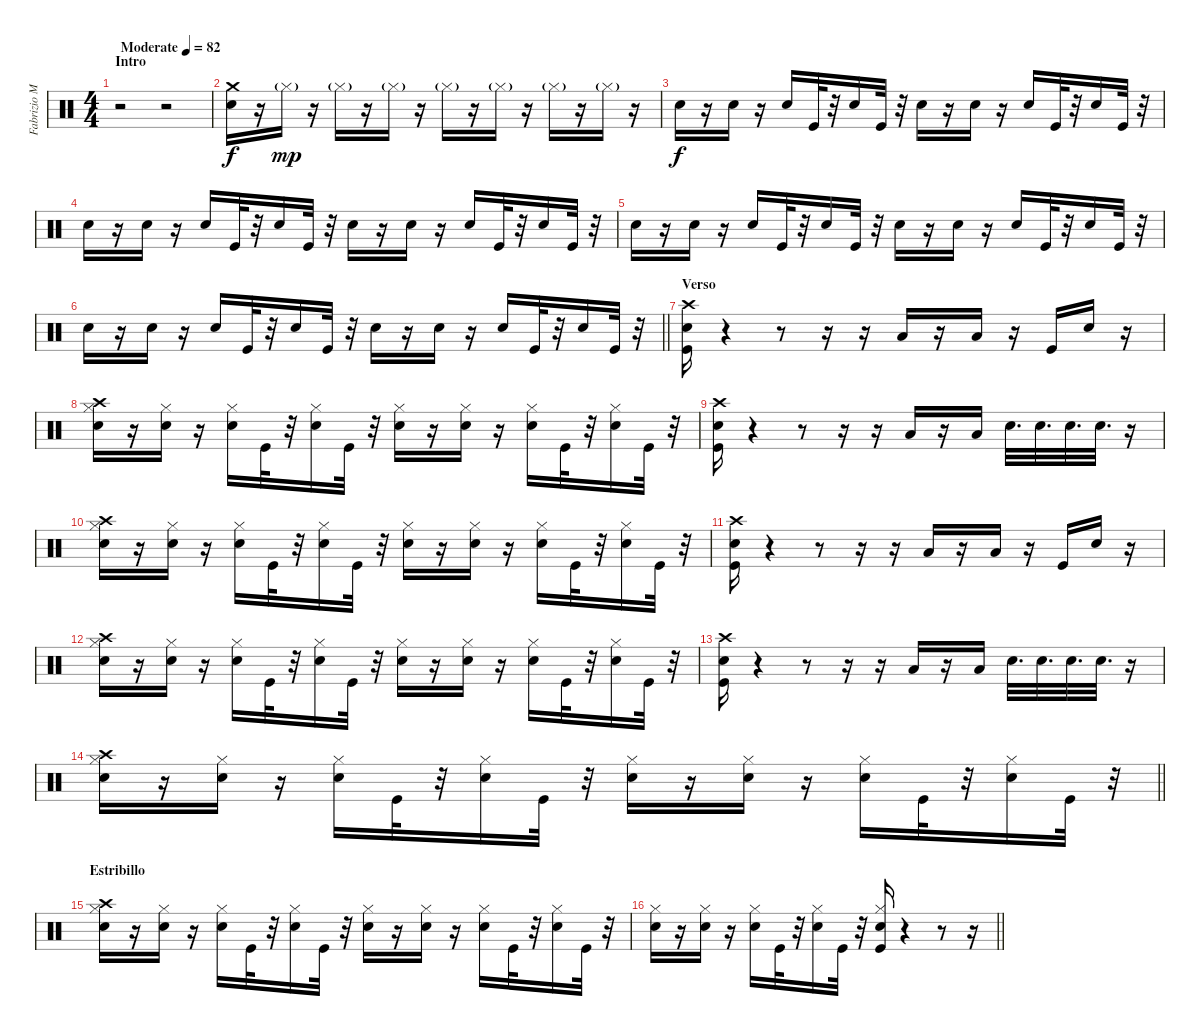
\track ("Fabrizio Moretti" "Fabrizio M") {instrument percussion}
\staff {score}
\articulation defaults
\ts (4 4)
\section ("" "Intro")
\tempo (82 "Moderate")
\clef neutral
\ks c
r.2{dy f} r.2 |
("Snare (hit) 2" "Crash medium (hit)").16 r.16 "Hi-Hat (closed)"{g}.16{dy mp} r.16 "Hi-Hat (closed)"{g}.16 r.16 "Hi-Hat (closed)"{g}.16 r.16 "Hi-Hat (closed)"{g}.16 r.16 "Hi-Hat (closed)"{g}.16 r.16 "Hi-Hat (closed)"{g}.16 r.16 "Hi-Hat (closed)"{g}.16 r.16 |
"Snare (hit) 2".16{dy f} r.16 "Snare (hit) 2".16 r.16 "Snare (hit) 2".16 "Kick (hit)".32 r.32 "Snare (hit) 2".16 "Kick (hit)".32 r.32 "Snare (hit) 2".16 r.16 "Snare (hit) 2".16 r.16 "Snare (hit) 2".16 "Kick (hit)".32 r.32 "Snare (hit) 2".16 "Kick (hit)".32 r.32 |
"Snare (hit) 2".16 r.16 "Snare (hit) 2".16 r.16 "Snare (hit) 2".16 "Kick (hit)".32 r.32 "Snare (hit) 2".16 "Kick (hit)".32 r.32 "Snare (hit) 2".16 r.16 "Snare (hit) 2".16 r.16 "Snare (hit) 2".16 "Kick (hit)".32 r.32 "Snare (hit) 2".16 "Kick (hit)".32 r.32 |
"Snare (hit) 2".16 r.16 "Snare (hit) 2".16 r.16 "Snare (hit) 2".16 "Kick (hit)".32 r.32 "Snare (hit) 2".16 "Kick (hit)".32 r.32 "Snare (hit) 2".16 r.16 "Snare (hit) 2".16 r.16 "Snare (hit) 2".16 "Kick (hit)".32 r.32 "Snare (hit) 2".16 "Kick (hit)".32 r.32 |
\barLineRight lightlight "Snare (hit) 2".16
r.16 "Snare (hit) 2".16 r.16 "Snare (hit) 2".16 "Kick (hit)".32 r.32 "Snare (hit) 2".16 "Kick (hit)".32 r.32 "Snare (hit) 2".16 r.16 "Snare (hit) 2".16 r.16 "Snare (hit) 2".16 "Kick (hit)".32 r.32 "Snare (hit) 2".16 "Kick (hit)".32 r.32 |
\section ("" "Verso")
("Snare (hit) 2" "Kick (hit)" "Crash high (hit)").16 r.4 r.8 r.16 r.16 "Low Tom (hit)".16 r.16 "Low Floor Tom (hit)".16 r.16 "Kick (hit)".16 "Snare (hit) 2".16 r.16 |
("Snare (hit) 2" "Crash high (hit)" "Hi-Hat (closed)").16 r.16 ("Snare (hit) 2" "Hi-Hat (closed)").16 r.16 ("Snare (hit) 2" "Hi-Hat (closed)").16 "Kick (hit)".32 r.32 ("Snare (hit) 2" "Hi-Hat (closed)").16 "Kick (hit)".32 r.32 ("Snare (hit) 2" "Hi-Hat (closed)").16 r.16 ("Snare (hit) 2" "Hi-Hat (closed)").16 r.16 ("Snare (hit) 2" "Hi-Hat (closed)").16 "Kick (hit)".32 r.32 ("Snare (hit) 2" "Hi-Hat (closed)").16 "Kick (hit)".32 r.32 |
("Snare (hit) 2" "Kick (hit)" "Crash high (hit)").16 r.4 r.8 r.16 r.16 "Low Tom (hit)".16 r.16 "Low Floor Tom (hit)".16 "Snare (hit) 2".32{d} "Snare (hit) 2".32{d} "Snare (hit) 2".32{d} "Snare (hit) 2".32{d} r.16 |
("Snare (hit) 2" "Crash high (hit)" "Hi-Hat (closed)").16 r.16 ("Snare (hit) 2" "Hi-Hat (closed)").16 r.16 ("Snare (hit) 2" "Hi-Hat (closed)").16 "Kick (hit)".32 r.32 ("Snare (hit) 2" "Hi-Hat (closed)").16 "Kick (hit)".32 r.32 ("Snare (hit) 2" "Hi-Hat (closed)").16 r.16 ("Snare (hit) 2" "Hi-Hat (closed)").16 r.16 ("Snare (hit) 2" "Hi-Hat (closed)").16 "Kick (hit)".32 r.32 ("Snare (hit) 2" "Hi-Hat (closed)").16 "Kick (hit)".32 r.32 |
("Snare (hit) 2" "Kick (hit)" "Crash high (hit)").16 r.4 r.8 r.16 r.16 "Low Tom (hit)".16 r.16 "Low Floor Tom (hit)".16 r.16 "Kick (hit)".16 "Snare (hit) 2".16 r.16 |
("Snare (hit) 2" "Crash high (hit)" "Hi-Hat (closed)").16 r.16 ("Snare (hit) 2" "Hi-Hat (closed)").16 r.16 ("Snare (hit) 2" "Hi-Hat (closed)").16 "Kick (hit)".32 r.32 ("Snare (hit) 2" "Hi-Hat (closed)").16 "Kick (hit)".32 r.32 ("Snare (hit) 2" "Hi-Hat (closed)").16 r.16 ("Snare (hit) 2" "Hi-Hat (closed)").16 r.16 ("Snare (hit) 2" "Hi-Hat (closed)").16 "Kick (hit)".32 r.32 ("Snare (hit) 2" "Hi-Hat (closed)").16 "Kick (hit)".32 r.32 |
("Snare (hit) 2" "Kick (hit)" "Crash high (hit)").16 r.4 r.8 r.16 r.16 "Low Tom (hit)".16 r.16 "Low Floor Tom (hit)".16 "Snare (hit) 2".32{d} "Snare (hit) 2".32{d} "Snare (hit) 2".32{d} "Snare (hit) 2".32{d} r.16 |
\barLineRight lightlight
("Snare (hit) 2" "Crash high (hit)" "Hi-Hat (closed)").16 r.16 ("Snare (hit) 2" "Hi-Hat (closed)").16 r.16 ("Snare (hit) 2" "Hi-Hat (closed)").16 "Kick (hit)".32 r.32 ("Snare (hit) 2" "Hi-Hat (closed)").16 "Kick (hit)".32 r.32 ("Snare (hit) 2" "Hi-Hat (closed)").16 r.16 ("Snare (hit) 2" "Hi-Hat (closed)").16 r.16 ("Snare (hit) 2" "Hi-Hat (closed)").16 "Kick (hit)".32 r.32 ("Snare (hit) 2" "Hi-Hat (closed)").16 "Kick (hit)".32 r.32 |
\section ("" "Estribillo")
("Snare (hit) 2" "Crash high (hit)" "Hi-Hat (closed)").16 r.16 ("Snare (hit) 2" "Hi-Hat (closed)").16 r.16 ("Snare (hit) 2" "Hi-Hat (closed)").16 "Kick (hit)".32 r.32 ("Snare (hit) 2" "Hi-Hat (closed)").16 "Kick (hit)".32 r.32 ("Snare (hit) 2" "Hi-Hat (closed)").16 r.16 ("Snare (hit) 2" "Hi-Hat (closed)").16 r.16 ("Snare (hit) 2" "Hi-Hat (closed)").16 "Kick (hit)".32 r.32 ("Snare (hit) 2" "Hi-Hat (closed)").16 "Kick (hit)".32 r.32 |
\barLineRight lightlight
("Snare (hit) 2" "Hi-Hat (closed)").16 r.16 ("Snare (hit) 2" "Hi-Hat (closed)").16 r.16 ("Snare (hit) 2" "Hi-Hat (closed)").16 "Kick (hit)".32 r.32 ("Snare (hit) 2" "Hi-Hat (closed)").16 "Kick (hit)".32 r.32 ("Snare (hit) 2" "Kick (hit)" "Hi-Hat (closed)").16 r.4 r.8 r.16
